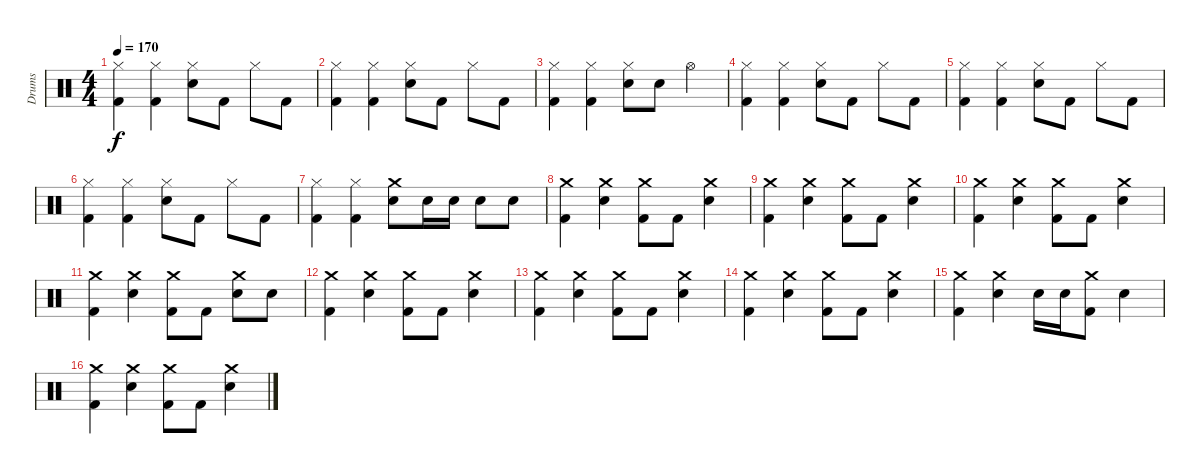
\track ("Drums" "Drums") {instrument percussion}
\staff {score}
\articulation defaults
\ts (4 4)
\tempo 170
\clef neutral
\ks c
("Hi-Hat (closed)" "Kick (hit) 2").4{dy f} ("Hi-Hat (closed)" "Kick (hit) 2").4 ("Hi-Hat (closed)" "Electric Snare (hit)").8 "Kick (hit) 2".8 "Hi-Hat (closed)".8 "Kick (hit) 2".8 |
("Hi-Hat (closed)" "Kick (hit) 2").4 ("Hi-Hat (closed)" "Kick (hit) 2").4 ("Hi-Hat (closed)" "Electric Snare (hit)").8 "Kick (hit) 2".8 "Hi-Hat (closed)".8 "Kick (hit) 2".8 |
("Hi-Hat (closed)" "Kick (hit) 2").4 ("Hi-Hat (closed)" "Kick (hit) 2").4 ("Hi-Hat (closed)" "Electric Snare (hit)").8 "Electric Snare (hit)".8 "Hi-Hat (open)".4 |
("Hi-Hat (closed)" "Kick (hit) 2").4 ("Hi-Hat (closed)" "Kick (hit) 2").4 ("Hi-Hat (closed)" "Electric Snare (hit)").8 "Kick (hit) 2".8 "Hi-Hat (closed)".8 "Kick (hit) 2".8 |
("Hi-Hat (closed)" "Kick (hit) 2").4 ("Hi-Hat (closed)" "Kick (hit) 2").4 ("Hi-Hat (closed)" "Electric Snare (hit)").8 "Kick (hit) 2".8 "Hi-Hat (closed)".8 "Kick (hit) 2".8 |
("Hi-Hat (closed)" "Kick (hit) 2").4 ("Hi-Hat (closed)" "Kick (hit) 2").4 ("Hi-Hat (closed)" "Electric Snare (hit)").8 "Kick (hit) 2".8 "Hi-Hat (closed)".8 "Kick (hit) 2".8 |
("Hi-Hat (closed)" "Kick (hit) 2").4 ("Hi-Hat (closed)" "Kick (hit) 2").4 ("Crash medium (hit)" "Electric Snare (hit)").8 "Electric Snare (hit)".16 "Electric Snare (hit)".16 "Electric Snare (hit)".8 "Electric Snare (hit)".8 |
("Crash medium (hit)" "Kick (hit) 2").4 ("Crash medium (hit)" "Electric Snare (hit)").4 ("Crash medium (hit)" "Kick (hit) 2").8 "Kick (hit) 2".8 ("Crash medium (hit)" "Electric Snare (hit)").4 |
("Crash medium (hit)" "Kick (hit) 2").4 ("Crash medium (hit)" "Electric Snare (hit)").4 ("Crash medium (hit)" "Kick (hit) 2").8 "Kick (hit) 2".8 ("Crash medium (hit)" "Electric Snare (hit)").4 |
("Crash medium (hit)" "Kick (hit) 2").4 ("Crash medium (hit)" "Electric Snare (hit)").4 ("Crash medium (hit)" "Kick (hit) 2").8 "Kick (hit) 2".8 ("Crash medium (hit)" "Electric Snare (hit)").4 |
("Crash medium (hit)" "Kick (hit) 2").4 ("Crash medium (hit)" "Electric Snare (hit)").4 ("Crash medium (hit)" "Kick (hit) 2").8 "Kick (hit) 2".8 ("Crash medium (hit)" "Electric Snare (hit)").8 "Electric Snare (hit)".8 |
("Crash medium (hit)" "Kick (hit) 2").4 ("Crash medium (hit)" "Electric Snare (hit)").4 ("Crash medium (hit)" "Kick (hit) 2").8 "Kick (hit) 2".8 ("Crash medium (hit)" "Electric Snare (hit)").4 |
("Crash medium (hit)" "Kick (hit) 2").4 ("Crash medium (hit)" "Electric Snare (hit)").4 ("Crash medium (hit)" "Kick (hit) 2").8 "Kick (hit) 2".8 ("Crash medium (hit)" "Electric Snare (hit)").4 |
("Crash medium (hit)" "Kick (hit) 2").4 ("Crash medium (hit)" "Electric Snare (hit)").4 ("Crash medium (hit)" "Kick (hit) 2").8 "Kick (hit) 2".8 ("Crash medium (hit)" "Electric Snare (hit)").4 |
("Crash medium (hit)" "Kick (hit) 2").4 ("Crash medium (hit)" "Electric Snare (hit)").4 "Electric Snare (hit)".16 "Electric Snare (hit)".16 ("Crash medium (hit)" "Kick (hit) 2").8 "Electric Snare (hit)".4 |
("Crash medium (hit)" "Kick (hit) 2").4 ("Crash medium (hit)" "Electric Snare (hit)").4 ("Crash medium (hit)" "Kick (hit) 2").8 "Kick (hit) 2".8 ("Crash medium (hit)" "Electric Snare (hit)").4
